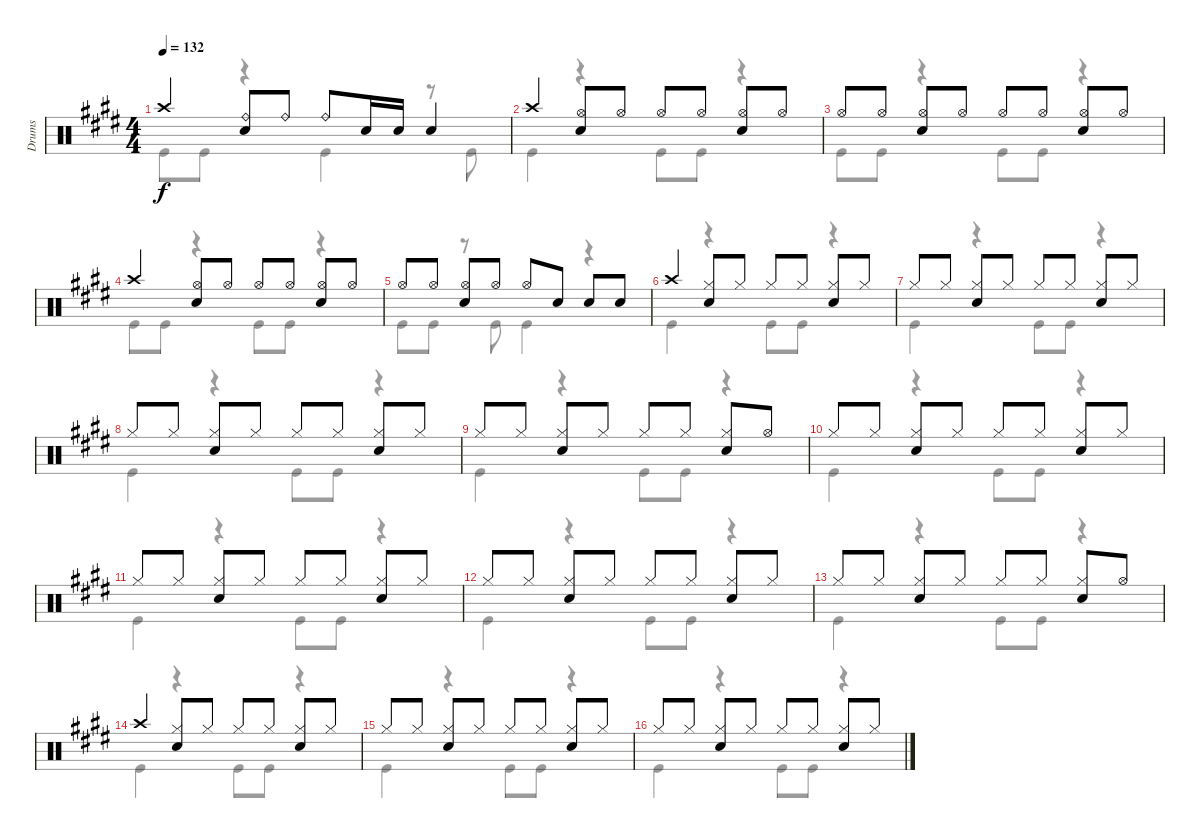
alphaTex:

\track ("Drums" "Drums") {instrument percussion}
\staff {score}
\articulation defaults
\voice
\ts (4 4)
\tempo 132
\clef neutral
\ks e "Crash high (hit)".4{dy f}
("Ride (bell)" "Snare (hit) 2").8 "Ride (bell)".8 "Ride (bell)".8 "Snare (hit) 2".16 "Snare (hit) 2".16 "Snare (hit) 2".4 |
"Crash high (hit)".4 ("Hi-Hat (open)" "Snare (hit) 2").8 "Hi-Hat (open)".8 "Hi-Hat (open)".8 "Hi-Hat (open)".8 ("Hi-Hat (open)" "Snare (hit) 2").8 "Hi-Hat (open)".8 |
"Hi-Hat (open)".8 "Hi-Hat (open)".8 ("Hi-Hat (open)" "Snare (hit) 2").8 "Hi-Hat (open)".8 "Hi-Hat (open)".8 "Hi-Hat (open)".8 ("Hi-Hat (open)" "Snare (hit) 2").8 "Hi-Hat (open)".8 |
"Crash high (hit)".4 ("Hi-Hat (open)" "Snare (hit) 2").8 "Hi-Hat (open)".8 "Hi-Hat (open)".8 "Hi-Hat (open)".8 ("Hi-Hat (open)" "Snare (hit) 2").8 "Hi-Hat (open)".8 |
"Hi-Hat (open)".8 "Hi-Hat (open)".8 ("Hi-Hat (open)" "Snare (hit) 2").8 "Hi-Hat (open)".8 "Hi-Hat (open)".8 "Snare (hit) 2".8 "Snare (hit) 2".8 "Snare (hit) 2".8 |
"Crash high (hit)".4 ("Hi-Hat (closed)" "Snare (hit) 2").8 "Hi-Hat (closed)".8 "Hi-Hat (closed)".8 "Hi-Hat (closed)".8 ("Hi-Hat (closed)" "Snare (hit) 2").8 "Hi-Hat (closed)".8 |
"Hi-Hat (closed)".8 "Hi-Hat (closed)".8 ("Hi-Hat (closed)" "Snare (hit) 2").8 "Hi-Hat (closed)".8 "Hi-Hat (closed)".8 "Hi-Hat (closed)".8 ("Hi-Hat (closed)" "Snare (hit) 2").8 "Hi-Hat (closed)".8 |
"Hi-Hat (closed)".8 "Hi-Hat (closed)".8 ("Hi-Hat (closed)" "Snare (hit) 2").8 "Hi-Hat (closed)".8 "Hi-Hat (closed)".8 "Hi-Hat (closed)".8 ("Hi-Hat (closed)" "Snare (hit) 2").8 "Hi-Hat (closed)".8 |
"Hi-Hat (closed)".8 "Hi-Hat (closed)".8 ("Hi-Hat (closed)" "Snare (hit) 2").8 "Hi-Hat (closed)".8 "Hi-Hat (closed)".8 "Hi-Hat (closed)".8 ("Hi-Hat (closed)" "Snare (hit) 2").8 "Hi-Hat (open)".8 |
"Hi-Hat (closed)".8 "Hi-Hat (closed)".8 ("Hi-Hat (closed)" "Snare (hit) 2").8 "Hi-Hat (closed)".8 "Hi-Hat (closed)".8 "Hi-Hat (closed)".8 ("Hi-Hat (closed)" "Snare (hit) 2").8 "Hi-Hat (closed)".8 |
"Hi-Hat (closed)".8 "Hi-Hat (closed)".8 ("Hi-Hat (closed)" "Snare (hit) 2").8 "Hi-Hat (closed)".8 "Hi-Hat (closed)".8 "Hi-Hat (closed)".8 ("Hi-Hat (closed)" "Snare (hit) 2").8 "Hi-Hat (closed)".8 |
"Hi-Hat (closed)".8 "Hi-Hat (closed)".8 ("Hi-Hat (closed)" "Snare (hit) 2").8 "Hi-Hat (closed)".8 "Hi-Hat (closed)".8 "Hi-Hat (closed)".8 ("Hi-Hat (closed)" "Snare (hit) 2").8 "Hi-Hat (closed)".8 |
"Hi-Hat (closed)".8 "Hi-Hat (closed)".8 ("Hi-Hat (closed)" "Snare (hit) 2").8 "Hi-Hat (closed)".8 "Hi-Hat (closed)".8 "Hi-Hat (closed)".8 ("Hi-Hat (closed)" "Snare (hit) 2").8 "Hi-Hat (open)".8 |
"Crash high (hit)".4 ("Hi-Hat (closed)" "Snare (hit) 2").8 "Hi-Hat (closed)".8 "Hi-Hat (closed)".8 "Hi-Hat (closed)".8 ("Hi-Hat (closed)" "Snare (hit) 2").8 "Hi-Hat (closed)".8 |
"Hi-Hat (closed)".8 "Hi-Hat (closed)".8 ("Hi-Hat (closed)" "Snare (hit) 2").8 "Hi-Hat (closed)".8 "Hi-Hat (closed)".8 "Hi-Hat (closed)".8 ("Hi-Hat (closed)" "Snare (hit) 2").8 "Hi-Hat (closed)".8 |
"Hi-Hat (closed)".8 "Hi-Hat (closed)".8 ("Hi-Hat (closed)" "Snare (hit) 2").8 "Hi-Hat (closed)".8 "Hi-Hat (closed)".8 "Hi-Hat (closed)".8 ("Hi-Hat (closed)" "Snare (hit) 2").8 "Hi-Hat (closed)".8
\voice
\clef neutral
\ottava regular
\simile none
\ks e "Kick (hit)".8{dy f} "Kick (hit)".8
r.4 "Kick (hit)".4 r.8 "Kick (hit)".8 |
"Kick (hit)".4 r.4 "Kick (hit)".8 "Kick (hit)".8 r.4 |
"Kick (hit)".8 "Kick (hit)".8 r.4 "Kick (hit)".8 "Kick (hit)".8 r.4 |
"Kick (hit)".8 "Kick (hit)".8 r.4 "Kick (hit)".8 "Kick (hit)".8 r.4 |
"Kick (hit)".8 "Kick (hit)".8 r.8 "Kick (hit)".8 "Kick (hit)".4 r.4 |
"Kick (hit)".4 r.4 "Kick (hit)".8 "Kick (hit)".8 r.4 |
"Kick (hit)".4 r.4 "Kick (hit)".8 "Kick (hit)".8 r.4 |
"Kick (hit)".4 r.4 "Kick (hit)".8 "Kick (hit)".8 r.4 |
"Kick (hit)".4 r.4 "Kick (hit)".8 "Kick (hit)".8 r.4 |
"Kick (hit)".4 r.4 "Kick (hit)".8 "Kick (hit)".8 r.4 |
"Kick (hit)".4 r.4 "Kick (hit)".8 "Kick (hit)".8 r.4 |
"Kick (hit)".4 r.4 "Kick (hit)".8 "Kick (hit)".8 r.4 |
"Kick (hit)".4 r.4 "Kick (hit)".8 "Kick (hit)".8 r.4 |
"Kick (hit)".4 r.4 "Kick (hit)".8 "Kick (hit)".8 r.4 |
"Kick (hit)".4 r.4 "Kick (hit)".8 "Kick (hit)".8 r.4 |
"Kick (hit)".4 r.4 "Kick (hit)".8 "Kick (hit)".8 r.4
